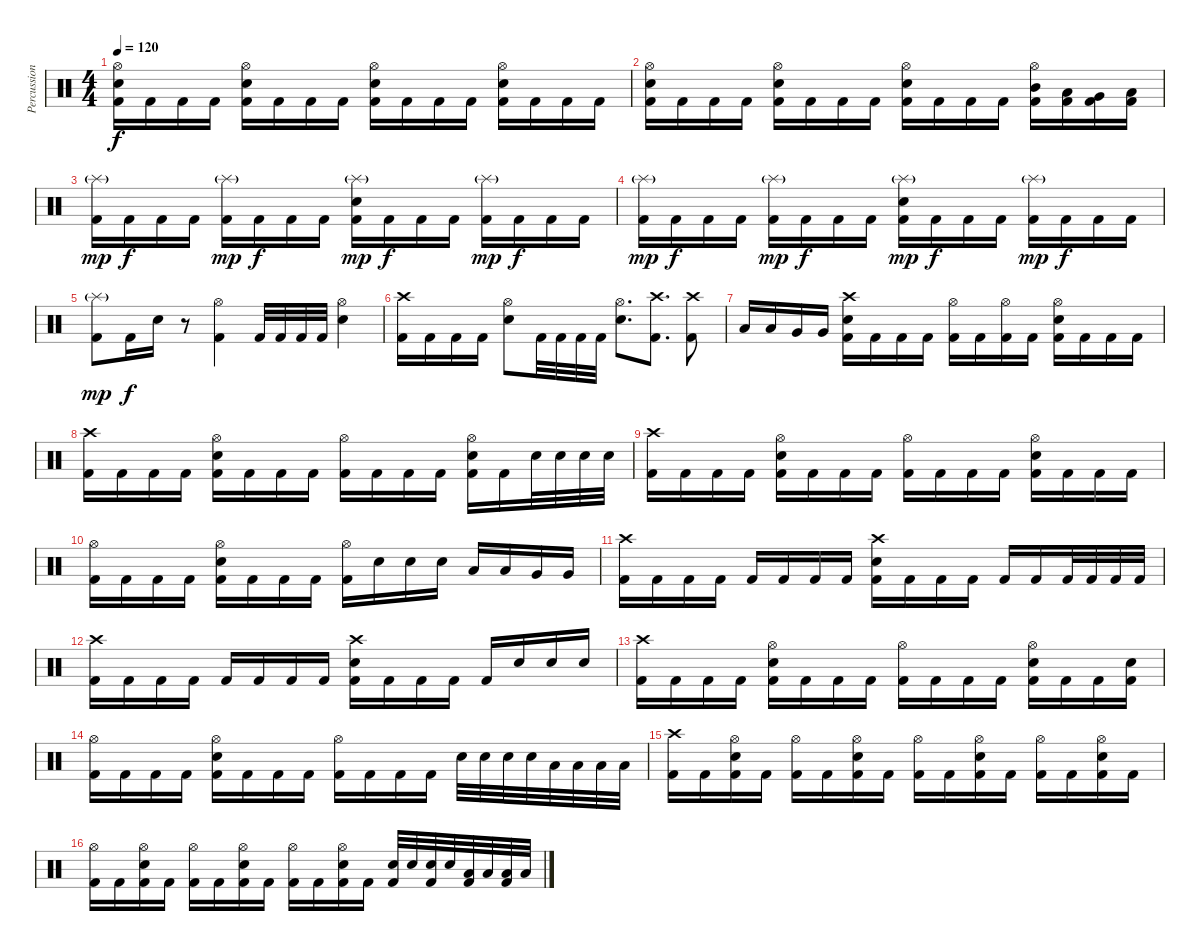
\track ("Percussion" "Percussion") {instrument percussion}
\staff {score}
\articulation defaults
\ts (4 4)
\tempo 120
\clef neutral
\ks c
("Hi-Hat (open)" "Electric Snare (hit)" "Kick (hit) 2").16{dy f} "Kick (hit) 2".16 "Kick (hit) 2".16 "Kick (hit) 2".16 ("Hi-Hat (open)" "Electric Snare (hit)" "Kick (hit) 2").16 "Kick (hit) 2".16 "Kick (hit) 2".16 "Kick (hit) 2".16 ("Hi-Hat (open)" "Electric Snare (hit)" "Kick (hit) 2").16 "Kick (hit) 2".16 "Kick (hit) 2".16 "Kick (hit) 2".16 ("Hi-Hat (open)" "Electric Snare (hit)" "Kick (hit) 2").16 "Kick (hit) 2".16 "Kick (hit) 2".16 "Kick (hit) 2".16 |
("Hi-Hat (open)" "Electric Snare (hit)" "Kick (hit) 2").16 "Kick (hit) 2".16 "Kick (hit) 2".16 "Kick (hit) 2".16 ("Hi-Hat (open)" "Electric Snare (hit)" "Kick (hit) 2").16 "Kick (hit) 2".16 "Kick (hit) 2".16 "Kick (hit) 2".16 ("Hi-Hat (open)" "Electric Snare (hit)" "Kick (hit) 2").16 "Kick (hit) 2".16 "Kick (hit) 2".16 "Kick (hit) 2".16 ("Hi-Hat (open)" "Mid Tom (hit)" "Kick (hit) 2").16 ("Low Tom (hit)" "Kick (hit) 2").16 ("Very Low Tom (hit)" "Kick (hit) 2").16 ("Low Floor Tom (hit)" "Kick (hit) 2").16 |
("Splash (hit)"{g} "Kick (hit) 2").16{dy mp} "Kick (hit) 2".16{dy f} "Kick (hit) 2".16 "Kick (hit) 2".16 ("Splash (hit)"{g} "Kick (hit) 2").16{dy mp} "Kick (hit) 2".16{dy f} "Kick (hit) 2".16 "Kick (hit) 2".16 ("Splash (hit)"{g} "Electric Snare (hit)" "Kick (hit) 2").16{dy mp} "Kick (hit) 2".16{dy f} "Kick (hit) 2".16 "Kick (hit) 2".16 ("Splash (hit)"{g} "Kick (hit) 2").16{dy mp} "Kick (hit) 2".16{dy f} "Kick (hit) 2".16 "Kick (hit) 2".16 |
("Splash (hit)"{g} "Kick (hit) 2").16{dy mp} "Kick (hit) 2".16{dy f} "Kick (hit) 2".16 "Kick (hit) 2".16 ("Splash (hit)"{g} "Kick (hit) 2").16{dy mp} "Kick (hit) 2".16{dy f} "Kick (hit) 2".16 "Kick (hit) 2".16 ("Splash (hit)"{g} "Electric Snare (hit)" "Kick (hit) 2").16{dy mp} "Kick (hit) 2".16{dy f} "Kick (hit) 2".16 "Kick (hit) 2".16 ("Splash (hit)"{g} "Kick (hit) 2").16{dy mp} "Kick (hit) 2".16{dy f} "Kick (hit) 2".16 "Kick (hit) 2".16 |
("Splash (hit)"{g} "Kick (hit) 2").8{dy mp} "Kick (hit) 2".16{dy f} "Electric Snare (hit)".16 r.8 ("Hi-Hat (open)" "Kick (hit) 2").4 "Kick (hit) 2".32 "Kick (hit) 2".32 "Kick (hit) 2".32 "Kick (hit) 2".32 ("Hi-Hat (open)" "Electric Snare (hit)").4 |
("Crash high (hit)" "Kick (hit) 2").16 "Kick (hit) 2".16 "Kick (hit) 2".16 "Kick (hit) 2".16 ("Hi-Hat (open)" "Electric Snare (hit)").8 "Kick (hit) 2".32 "Kick (hit) 2".32 "Kick (hit) 2".32 "Kick (hit) 2".32 ("Hi-Hat (open)" "Electric Snare (hit)").8{d} ("Crash high (hit)" "Kick (hit) 2").8{d} ("Crash high (hit)" "Kick (hit) 2").8 |
"Low Tom (hit)".16 "Low Tom (hit)".16 "Very Low Tom (hit)".16 "Very Low Tom (hit)".16 ("Crash high (hit)" "Electric Snare (hit)" "Kick (hit) 2").16 "Kick (hit) 2".16 "Kick (hit) 2".16 "Kick (hit) 2".16 ("Hi-Hat (open)" "Kick (hit) 2").16 "Kick (hit) 2".16 ("Hi-Hat (open)" "Kick (hit) 2").16 "Kick (hit) 2".16 ("Hi-Hat (open)" "Electric Snare (hit)" "Kick (hit) 2").16 "Kick (hit) 2".16 "Kick (hit) 2".16 "Kick (hit) 2".16 |
("Crash high (hit)" "Kick (hit) 2").16 "Kick (hit) 2".16 "Kick (hit) 2".16 "Kick (hit) 2".16 ("Hi-Hat (open)" "Electric Snare (hit)" "Kick (hit) 2").16 "Kick (hit) 2".16 "Kick (hit) 2".16 "Kick (hit) 2".16 ("Hi-Hat (open)" "Kick (hit) 2").16 "Kick (hit) 2".16 "Kick (hit) 2".16 "Kick (hit) 2".16 ("Hi-Hat (open)" "Electric Snare (hit)" "Kick (hit) 2").16 "Kick (hit) 2".16 "Electric Snare (hit)".32 "Electric Snare (hit)".32 "Electric Snare (hit)".32 "Electric Snare (hit)".32 |
("Crash high (hit)" "Kick (hit) 2").16 "Kick (hit) 2".16 "Kick (hit) 2".16 "Kick (hit) 2".16 ("Hi-Hat (open)" "Electric Snare (hit)" "Kick (hit) 2").16 "Kick (hit) 2".16 "Kick (hit) 2".16 "Kick (hit) 2".16 ("Hi-Hat (open)" "Kick (hit) 2").16 "Kick (hit) 2".16 "Kick (hit) 2".16 "Kick (hit) 2".16 ("Hi-Hat (open)" "Electric Snare (hit)" "Kick (hit) 2").16 "Kick (hit) 2".16 "Kick (hit) 2".16 "Kick (hit) 2".16 |
("Hi-Hat (open)" "Kick (hit) 2").16 "Kick (hit) 2".16 "Kick (hit) 2".16 "Kick (hit) 2".16 ("Hi-Hat (open)" "Electric Snare (hit)" "Kick (hit) 2").16 "Kick (hit) 2".16 "Kick (hit) 2".16 "Kick (hit) 2".16 ("Hi-Hat (open)" "Kick (hit) 2").16 "Electric Snare (hit)".16 "Electric Snare (hit)".16 "Electric Snare (hit)".16 "Low Tom (hit)".16 "Low Tom (hit)".16 "Very Low Tom (hit)".16 "Very Low Tom (hit)".16 |
("Crash high (hit)" "Kick (hit) 2").16 "Kick (hit) 2".16 "Kick (hit) 2".16 "Kick (hit) 2".16 "Kick (hit) 2".16 "Kick (hit) 2".16 "Kick (hit) 2".16 "Kick (hit) 2".16 ("Crash high (hit)" "Electric Snare (hit)" "Kick (hit) 2").16 "Kick (hit) 2".16 "Kick (hit) 2".16 "Kick (hit) 2".16 "Kick (hit) 2".16 "Kick (hit) 2".16 "Kick (hit) 2".32 "Kick (hit) 2".32 "Kick (hit) 2".32 "Kick (hit) 2".32 |
("Crash high (hit)" "Kick (hit) 2").16 "Kick (hit) 2".16 "Kick (hit) 2".16 "Kick (hit) 2".16 "Kick (hit) 2".16 "Kick (hit) 2".16 "Kick (hit) 2".16 "Kick (hit) 2".16 ("Crash high (hit)" "Electric Snare (hit)" "Kick (hit) 2").16 "Kick (hit) 2".16 "Kick (hit) 2".16 "Kick (hit) 2".16 "Kick (hit) 2".16 "Electric Snare (hit)".16 "Electric Snare (hit)".16 "Electric Snare (hit)".16 |
("Crash high (hit)" "Kick (hit) 2").16 "Kick (hit) 2".16 "Kick (hit) 2".16 "Kick (hit) 2".16 ("Hi-Hat (open)" "Electric Snare (hit)" "Kick (hit) 2").16 "Kick (hit) 2".16 "Kick (hit) 2".16 "Kick (hit) 2".16 ("Hi-Hat (open)" "Kick (hit) 2").16 "Kick (hit) 2".16 "Kick (hit) 2".16 "Kick (hit) 2".16 ("Hi-Hat (open)" "Electric Snare (hit)" "Kick (hit) 2").16 "Kick (hit) 2".16 "Kick (hit) 2".16 ("Electric Snare (hit)" "Kick (hit) 2").16 |
("Hi-Hat (open)" "Kick (hit) 2").16 "Kick (hit) 2".16 "Kick (hit) 2".16 "Kick (hit) 2".16 ("Hi-Hat (open)" "Electric Snare (hit)" "Kick (hit) 2").16 "Kick (hit) 2".16 "Kick (hit) 2".16 "Kick (hit) 2".16 ("Hi-Hat (open)" "Kick (hit) 2").16 "Kick (hit) 2".16 "Kick (hit) 2".16 "Kick (hit) 2".16 "Electric Snare (hit)".32 "Electric Snare (hit)".32 "Electric Snare (hit)".32 "Electric Snare (hit)".32 "Low Tom (hit)".32 "Low Tom (hit)".32 "Low Tom (hit)".32 "Low Tom (hit)".32 |
("Crash high (hit)" "Kick (hit) 2").16 "Kick (hit) 2".16 ("Hi-Hat (open)" "Electric Snare (hit)" "Kick (hit) 2").16 "Kick (hit) 2".16 ("Hi-Hat (open)" "Kick (hit) 2").16 "Kick (hit) 2".16 ("Hi-Hat (open)" "Electric Snare (hit)" "Kick (hit) 2").16 "Kick (hit) 2".16 ("Hi-Hat (open)" "Kick (hit) 2").16 "Kick (hit) 2".16 ("Hi-Hat (open)" "Electric Snare (hit)" "Kick (hit) 2").16 "Kick (hit) 2".16 ("Hi-Hat (open)" "Kick (hit) 2").16 "Kick (hit) 2".16 ("Hi-Hat (open)" "Electric Snare (hit)" "Kick (hit) 2").16 "Kick (hit) 2".16 |
("Hi-Hat (open)" "Kick (hit) 2").16 "Kick (hit) 2".16 ("Hi-Hat (open)" "Electric Snare (hit)" "Kick (hit) 2").16 "Kick (hit) 2".16 ("Hi-Hat (open)" "Kick (hit) 2").16 "Kick (hit) 2".16 ("Hi-Hat (open)" "Electric Snare (hit)" "Kick (hit) 2").16 "Kick (hit) 2".16 ("Hi-Hat (open)" "Kick (hit) 2").16 "Kick (hit) 2".16 ("Hi-Hat (open)" "Electric Snare (hit)" "Kick (hit) 2").16 "Kick (hit) 2".16 ("Electric Snare (hit)" "Kick (hit) 2").32 "Electric Snare (hit)".32 ("Electric Snare (hit)" "Kick (hit) 2").32 "Electric Snare (hit)".32 ("Low Tom (hit)" "Kick (hit) 2").32 "Low Tom (hit)".32 ("Low Tom (hit)" "Kick (hit) 2").32 "Low Tom (hit)".32
